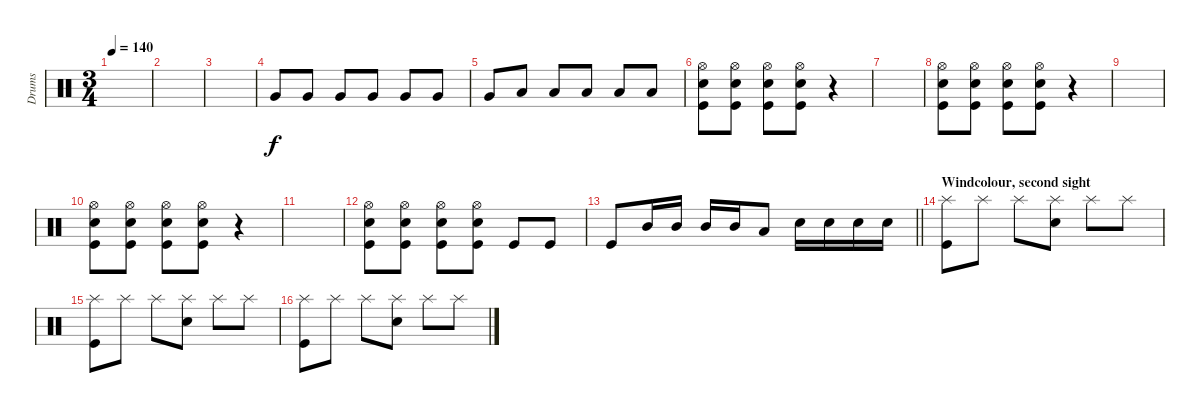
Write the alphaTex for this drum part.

\track ("Drums" "Drums") {instrument percussion}
\staff {score}
\articulation defaults
\ts (3 4)
\tempo 140
\clef neutral
\ks c
|
|
|
"Very Low Tom (hit)".8 "Very Low Tom (hit)".8 "Very Low Tom (hit)".8 "Very Low Tom (hit)".8 "Very Low Tom (hit)".8 "Very Low Tom (hit)".8 |
"Very Low Tom (hit)".8 "Low Tom (hit)".8 "Low Tom (hit)".8 "Low Tom (hit)".8 "Low Tom (hit)".8 "Low Tom (hit)".8 |
("Kick (hit)" "Snare (hit) 2" "Hi-Hat (open)").8 ("Kick (hit)" "Snare (hit) 2" "Hi-Hat (open)").8 ("Kick (hit)" "Snare (hit) 2" "Hi-Hat (open)").8 ("Kick (hit)" "Snare (hit) 2" "Hi-Hat (open)").8 r.4 |
|
("Kick (hit)" "Snare (hit) 2" "Hi-Hat (open)").8 ("Kick (hit)" "Snare (hit) 2" "Hi-Hat (open)").8 ("Kick (hit)" "Snare (hit) 2" "Hi-Hat (open)").8 ("Kick (hit)" "Snare (hit) 2" "Hi-Hat (open)").8 r.4 |
|
("Kick (hit)" "Snare (hit) 2" "Hi-Hat (open)").8 ("Kick (hit)" "Snare (hit) 2" "Hi-Hat (open)").8 ("Kick (hit)" "Snare (hit) 2" "Hi-Hat (open)").8 ("Kick (hit)" "Snare (hit) 2" "Hi-Hat (open)").8 r.4 |
|
("Kick (hit)" "Snare (hit) 2" "Hi-Hat (open)").8 ("Kick (hit)" "Snare (hit) 2" "Hi-Hat (open)").8 ("Kick (hit)" "Snare (hit) 2" "Hi-Hat (open)").8 ("Kick (hit)" "Snare (hit) 2" "Hi-Hat (open)").8 "Kick (hit)".8 "Kick (hit)".8 |
\barLineRight lightlight "Kick (hit)".8 "Mid Tom (hit)".16 "Mid Tom (hit)".16 "Mid Tom (hit)".16 "Mid Tom (hit)".16 "Low Tom (hit)".8 "Snare (hit) 2".16 "Snare (hit) 2".16 "Snare (hit) 2".16 "Snare (hit) 2".16
|
\section ("" "Windcolour, second sight")
("Splash (hit)" "Kick (hit)").8 "Splash (hit)".8 "Splash (hit)".8 ("Splash (hit)" "Snare (hit) 2").8 "Splash (hit)".8 "Splash (hit)".8 |
("Splash (hit)" "Kick (hit)").8 "Splash (hit)".8 "Splash (hit)".8 ("Splash (hit)" "Snare (hit) 2").8 "Splash (hit)".8 "Splash (hit)".8 |
("Splash (hit)" "Kick (hit)").8 "Splash (hit)".8 "Splash (hit)".8 ("Splash (hit)" "Snare (hit) 2").8 "Splash (hit)".8 "Splash (hit)".8
